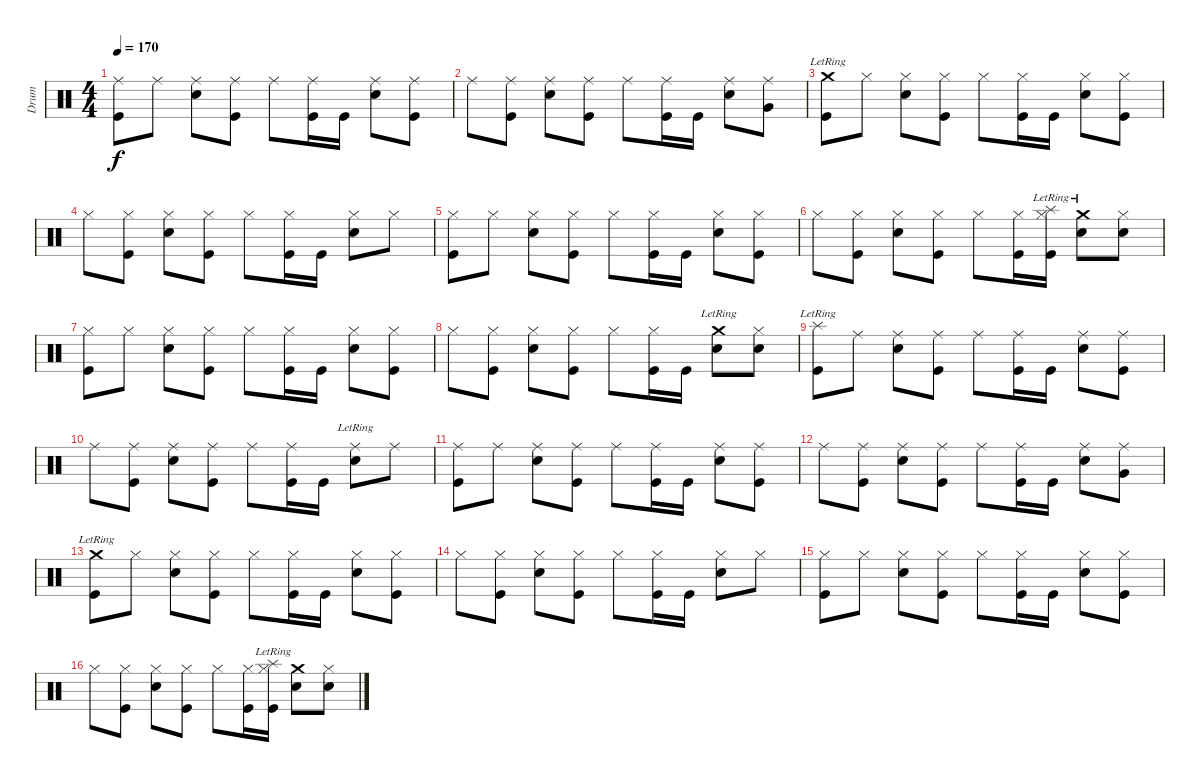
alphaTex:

\track ("Drum" "Drum") {instrument percussion}
\staff {score}
\articulation defaults
\ts (4 4)
\tempo 170
\clef neutral
\ks c
("Ride (middle)" "Kick (hit)").8{dy f} "Ride (middle)".8 ("Ride (middle)" "Snare (hit) 2").8 ("Ride (middle)" "Kick (hit)").8 "Ride (middle)".8 ("Ride (middle)" "Kick (hit)").16 "Kick (hit)".16 ("Ride (middle)" "Snare (hit) 2").8 ("Ride (middle)" "Kick (hit)").8 |
"Ride (middle)".8 ("Ride (middle)" "Kick (hit)").8 ("Ride (middle)" "Snare (hit) 2").8 ("Ride (middle)" "Kick (hit)").8 "Ride (middle)".8 ("Ride (middle)" "Kick (hit)").16 "Kick (hit)".16 ("Ride (middle)" "Snare (hit) 2").8 ("Ride (middle)" "Very Low Tom (hit)").8 |
("Crash medium (hit)"{lr} "Kick (hit)").8 "Hi-Hat (closed)".8 ("Hi-Hat (closed)" "Snare (hit) 2").8 ("Hi-Hat (closed)" "Kick (hit)").8 "Hi-Hat (closed)".8 ("Hi-Hat (closed)" "Kick (hit)").16 "Kick (hit)".16 ("Hi-Hat (closed)" "Snare (hit) 2").8 ("Hi-Hat (closed)" "Kick (hit)").8 |
"Hi-Hat (closed)".8 ("Hi-Hat (closed)" "Kick (hit)").8 ("Hi-Hat (closed)" "Snare (hit) 2").8 ("Hi-Hat (closed)" "Kick (hit)").8 "Hi-Hat (closed)".8 ("Hi-Hat (closed)" "Kick (hit)").16 "Kick (hit)".16 ("Hi-Hat (closed)" "Snare (hit) 2").8 "Hi-Hat (closed)".8 |
("Hi-Hat (closed)" "Kick (hit)").8 "Hi-Hat (closed)".8 ("Hi-Hat (closed)" "Snare (hit) 2").8 ("Hi-Hat (closed)" "Kick (hit)").8 "Hi-Hat (closed)".8 ("Hi-Hat (closed)" "Kick (hit)").16 "Kick (hit)".16 ("Hi-Hat (closed)" "Snare (hit) 2").8 ("Hi-Hat (closed)" "Kick (hit)").8 |
"Hi-Hat (closed)".8 ("Hi-Hat (closed)" "Kick (hit)").8 ("Hi-Hat (closed)" "Snare (hit) 2").8 ("Hi-Hat (closed)" "Kick (hit)").8 "Hi-Hat (closed)".8 ("Hi-Hat (closed)" "Kick (hit)").16 ("Splash (hit)"{lr} "Hi-Hat (closed)" "Kick (hit)").16 ("Crash medium (hit)"{lr} "Snare (hit) 2").8 ("Hi-Hat (closed)" "Snare (hit) 2").8 |
("Hi-Hat (closed)" "Kick (hit)").8 "Hi-Hat (closed)".8 ("Hi-Hat (closed)" "Snare (hit) 2").8 ("Hi-Hat (closed)" "Kick (hit)").8 "Hi-Hat (closed)".8 ("Hi-Hat (closed)" "Kick (hit)").16 "Kick (hit)".16 ("Hi-Hat (closed)" "Snare (hit) 2").8 ("Hi-Hat (closed)" "Kick (hit)").8 |
"Hi-Hat (closed)".8 ("Hi-Hat (closed)" "Kick (hit)").8 ("Hi-Hat (closed)" "Snare (hit) 2").8 ("Hi-Hat (closed)" "Kick (hit)").8 "Hi-Hat (closed)".8 ("Hi-Hat (closed)" "Kick (hit)").16 "Kick (hit)".16 ("Crash medium (hit)"{lr} "Snare (hit) 2").8 ("Hi-Hat (closed)" "Snare (hit) 2").8 |
("Splash (hit)"{lr} "Kick (hit)").8 "Ride (middle)".8 ("Ride (middle)" "Snare (hit) 2").8 ("Ride (middle)" "Kick (hit)").8 "Ride (middle)".8 ("Ride (middle)" "Kick (hit)").16 "Kick (hit)".16 ("Ride (middle)" "Snare (hit) 2").8 ("Ride (middle)" "Kick (hit)").8 |
"Ride (middle)".8 ("Ride (middle)" "Kick (hit)").8 ("Ride (middle)" "Snare (hit) 2").8 ("Ride (middle)" "Kick (hit)").8 "Ride (middle)".8 ("Ride (middle)" "Kick (hit)").16 "Kick (hit)".16 ("Ride (middle)"{lr} "Snare (hit) 2").8 "Ride (middle)".8 |
("Ride (middle)" "Kick (hit)").8 "Ride (middle)".8 ("Ride (middle)" "Snare (hit) 2").8 ("Ride (middle)" "Kick (hit)").8 "Ride (middle)".8 ("Ride (middle)" "Kick (hit)").16 "Kick (hit)".16 ("Ride (middle)" "Snare (hit) 2").8 ("Ride (middle)" "Kick (hit)").8 |
"Ride (middle)".8 ("Ride (middle)" "Kick (hit)").8 ("Ride (middle)" "Snare (hit) 2").8 ("Ride (middle)" "Kick (hit)").8 "Ride (middle)".8 ("Ride (middle)" "Kick (hit)").16 "Kick (hit)".16 ("Ride (middle)" "Snare (hit) 2").8 ("Ride (middle)" "Very Low Tom (hit)").8 |
("Crash medium (hit)"{lr} "Kick (hit)").8 "Hi-Hat (closed)".8 ("Hi-Hat (closed)" "Snare (hit) 2").8 ("Hi-Hat (closed)" "Kick (hit)").8 "Hi-Hat (closed)".8 ("Hi-Hat (closed)" "Kick (hit)").16 "Kick (hit)".16 ("Hi-Hat (closed)" "Snare (hit) 2").8 ("Hi-Hat (closed)" "Kick (hit)").8 |
"Hi-Hat (closed)".8 ("Hi-Hat (closed)" "Kick (hit)").8 ("Hi-Hat (closed)" "Snare (hit) 2").8 ("Hi-Hat (closed)" "Kick (hit)").8 "Hi-Hat (closed)".8 ("Hi-Hat (closed)" "Kick (hit)").16 "Kick (hit)".16 ("Hi-Hat (closed)" "Snare (hit) 2").8 "Hi-Hat (closed)".8 |
("Hi-Hat (closed)" "Kick (hit)").8 "Hi-Hat (closed)".8 ("Hi-Hat (closed)" "Snare (hit) 2").8 ("Hi-Hat (closed)" "Kick (hit)").8 "Hi-Hat (closed)".8 ("Hi-Hat (closed)" "Kick (hit)").16 "Kick (hit)".16 ("Hi-Hat (closed)" "Snare (hit) 2").8 ("Hi-Hat (closed)" "Kick (hit)").8 |
"Hi-Hat (closed)".8 ("Hi-Hat (closed)" "Kick (hit)").8 ("Hi-Hat (closed)" "Snare (hit) 2").8 ("Hi-Hat (closed)" "Kick (hit)").8 "Hi-Hat (closed)".8 ("Hi-Hat (closed)" "Kick (hit)").16 ("Splash (hit)"{lr} "Hi-Hat (closed)" "Kick (hit)").16 ("Crash medium (hit)"{lr} "Snare (hit) 2").8 ("Hi-Hat (closed)" "Snare (hit) 2").8
